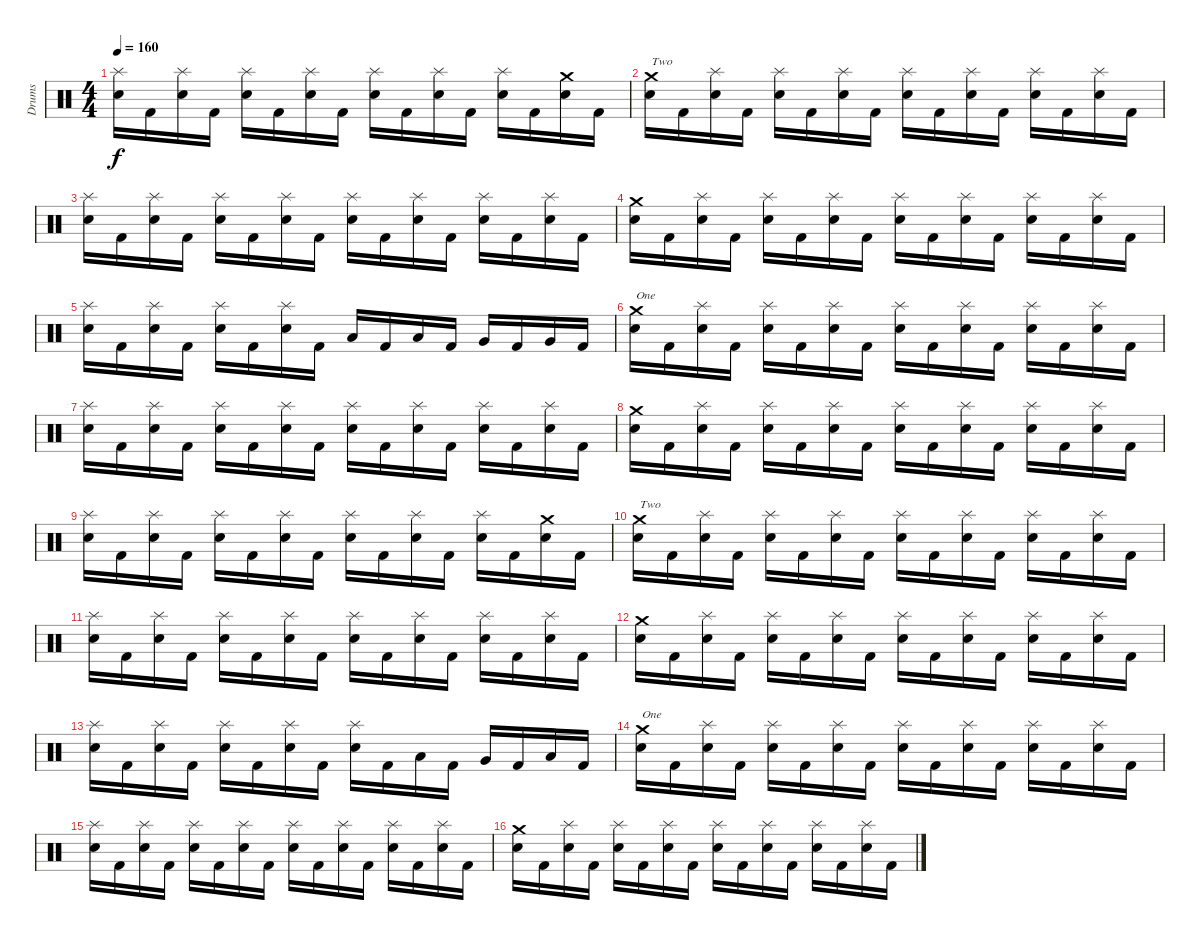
\track ("Drums" "Drums") {instrument percussion}
\staff {score}
\articulation defaults
\ts (4 4)
\tempo 160
\clef neutral
\ks c
("Splash (hit)" "Snare (hit) 2").16{dy f} "Kick (hit) 2".16 ("Splash (hit)" "Snare (hit) 2").16 "Kick (hit) 2".16 ("Splash (hit)" "Snare (hit) 2").16 "Kick (hit) 2".16 ("Splash (hit)" "Snare (hit) 2").16 "Kick (hit) 2".16 ("Splash (hit)" "Snare (hit) 2").16 "Kick (hit) 2".16 ("Splash (hit)" "Snare (hit) 2").16 "Kick (hit) 2".16 ("Splash (hit)" "Snare (hit) 2").16 "Kick (hit) 2".16 ("Crash medium (hit)" "Snare (hit) 2").16 "Kick (hit) 2".16 |
("Crash medium (hit)" "Snare (hit) 2").16{txt "Two"} "Kick (hit) 2".16 ("Splash (hit)" "Snare (hit) 2").16 "Kick (hit) 2".16 ("Splash (hit)" "Snare (hit) 2").16 "Kick (hit) 2".16 ("Splash (hit)" "Snare (hit) 2").16 "Kick (hit) 2".16 ("Splash (hit)" "Snare (hit) 2").16 "Kick (hit) 2".16 ("Splash (hit)" "Snare (hit) 2").16 "Kick (hit) 2".16 ("Splash (hit)" "Snare (hit) 2").16 "Kick (hit) 2".16 ("Splash (hit)" "Snare (hit) 2").16 "Kick (hit) 2".16 |
("Splash (hit)" "Snare (hit) 2").16 "Kick (hit) 2".16 ("Splash (hit)" "Snare (hit) 2").16 "Kick (hit) 2".16 ("Splash (hit)" "Snare (hit) 2").16 "Kick (hit) 2".16 ("Splash (hit)" "Snare (hit) 2").16 "Kick (hit) 2".16 ("Splash (hit)" "Snare (hit) 2").16 "Kick (hit) 2".16 ("Splash (hit)" "Snare (hit) 2").16 "Kick (hit) 2".16 ("Splash (hit)" "Snare (hit) 2").16 "Kick (hit) 2".16 ("Splash (hit)" "Snare (hit) 2").16 "Kick (hit) 2".16 |
("Crash medium (hit)" "Snare (hit) 2").16 "Kick (hit) 2".16 ("Splash (hit)" "Snare (hit) 2").16 "Kick (hit) 2".16 ("Splash (hit)" "Snare (hit) 2").16 "Kick (hit) 2".16 ("Splash (hit)" "Snare (hit) 2").16 "Kick (hit) 2".16 ("Splash (hit)" "Snare (hit) 2").16 "Kick (hit) 2".16 ("Splash (hit)" "Snare (hit) 2").16 "Kick (hit) 2".16 ("Splash (hit)" "Snare (hit) 2").16 "Kick (hit) 2".16 ("Splash (hit)" "Snare (hit) 2").16 "Kick (hit) 2".16 |
("Splash (hit)" "Snare (hit) 2").16 "Kick (hit) 2".16 ("Splash (hit)" "Snare (hit) 2").16 "Kick (hit) 2".16 ("Splash (hit)" "Snare (hit) 2").16 "Kick (hit) 2".16 ("Splash (hit)" "Snare (hit) 2").16 "Kick (hit) 2".16 "Low Tom (hit)".16 "Kick (hit) 2".16 "Low Tom (hit)".16 "Kick (hit) 2".16 "Very Low Tom (hit)".16 "Kick (hit) 2".16 "Very Low Tom (hit)".16 "Kick (hit) 2".16 |
("Crash medium (hit)" "Snare (hit) 2").16{txt "One"} "Kick (hit) 2".16 ("Splash (hit)" "Snare (hit) 2").16 "Kick (hit) 2".16 ("Splash (hit)" "Snare (hit) 2").16 "Kick (hit) 2".16 ("Splash (hit)" "Snare (hit) 2").16 "Kick (hit) 2".16 ("Splash (hit)" "Snare (hit) 2").16 "Kick (hit) 2".16 ("Splash (hit)" "Snare (hit) 2").16 "Kick (hit) 2".16 ("Splash (hit)" "Snare (hit) 2").16 "Kick (hit) 2".16 ("Splash (hit)" "Snare (hit) 2").16 "Kick (hit) 2".16 |
("Splash (hit)" "Snare (hit) 2").16 "Kick (hit) 2".16 ("Splash (hit)" "Snare (hit) 2").16 "Kick (hit) 2".16 ("Splash (hit)" "Snare (hit) 2").16 "Kick (hit) 2".16 ("Splash (hit)" "Snare (hit) 2").16 "Kick (hit) 2".16 ("Splash (hit)" "Snare (hit) 2").16 "Kick (hit) 2".16 ("Splash (hit)" "Snare (hit) 2").16 "Kick (hit) 2".16 ("Splash (hit)" "Snare (hit) 2").16 "Kick (hit) 2".16 ("Splash (hit)" "Snare (hit) 2").16 "Kick (hit) 2".16 |
("Crash medium (hit)" "Snare (hit) 2").16 "Kick (hit) 2".16 ("Splash (hit)" "Snare (hit) 2").16 "Kick (hit) 2".16 ("Splash (hit)" "Snare (hit) 2").16 "Kick (hit) 2".16 ("Splash (hit)" "Snare (hit) 2").16 "Kick (hit) 2".16 ("Splash (hit)" "Snare (hit) 2").16 "Kick (hit) 2".16 ("Splash (hit)" "Snare (hit) 2").16 "Kick (hit) 2".16 ("Splash (hit)" "Snare (hit) 2").16 "Kick (hit) 2".16 ("Splash (hit)" "Snare (hit) 2").16 "Kick (hit) 2".16 |
("Splash (hit)" "Snare (hit) 2").16 "Kick (hit) 2".16 ("Splash (hit)" "Snare (hit) 2").16 "Kick (hit) 2".16 ("Splash (hit)" "Snare (hit) 2").16 "Kick (hit) 2".16 ("Splash (hit)" "Snare (hit) 2").16 "Kick (hit) 2".16 ("Splash (hit)" "Snare (hit) 2").16 "Kick (hit) 2".16 ("Splash (hit)" "Snare (hit) 2").16 "Kick (hit) 2".16 ("Splash (hit)" "Snare (hit) 2").16 "Kick (hit) 2".16 ("Crash medium (hit)" "Snare (hit) 2").16 "Kick (hit) 2".16 |
("Crash medium (hit)" "Snare (hit) 2").16{txt "Two"} "Kick (hit) 2".16 ("Splash (hit)" "Snare (hit) 2").16 "Kick (hit) 2".16 ("Splash (hit)" "Snare (hit) 2").16 "Kick (hit) 2".16 ("Splash (hit)" "Snare (hit) 2").16 "Kick (hit) 2".16 ("Splash (hit)" "Snare (hit) 2").16 "Kick (hit) 2".16 ("Splash (hit)" "Snare (hit) 2").16 "Kick (hit) 2".16 ("Splash (hit)" "Snare (hit) 2").16 "Kick (hit) 2".16 ("Splash (hit)" "Snare (hit) 2").16 "Kick (hit) 2".16 |
("Splash (hit)" "Snare (hit) 2").16 "Kick (hit) 2".16 ("Splash (hit)" "Snare (hit) 2").16 "Kick (hit) 2".16 ("Splash (hit)" "Snare (hit) 2").16 "Kick (hit) 2".16 ("Splash (hit)" "Snare (hit) 2").16 "Kick (hit) 2".16 ("Splash (hit)" "Snare (hit) 2").16 "Kick (hit) 2".16 ("Splash (hit)" "Snare (hit) 2").16 "Kick (hit) 2".16 ("Splash (hit)" "Snare (hit) 2").16 "Kick (hit) 2".16 ("Splash (hit)" "Snare (hit) 2").16 "Kick (hit) 2".16 |
("Crash medium (hit)" "Snare (hit) 2").16 "Kick (hit) 2".16 ("Splash (hit)" "Snare (hit) 2").16 "Kick (hit) 2".16 ("Splash (hit)" "Snare (hit) 2").16 "Kick (hit) 2".16 ("Splash (hit)" "Snare (hit) 2").16 "Kick (hit) 2".16 ("Splash (hit)" "Snare (hit) 2").16 "Kick (hit) 2".16 ("Splash (hit)" "Snare (hit) 2").16 "Kick (hit) 2".16 ("Splash (hit)" "Snare (hit) 2").16 "Kick (hit) 2".16 ("Splash (hit)" "Snare (hit) 2").16 "Kick (hit) 2".16 |
("Splash (hit)" "Snare (hit) 2").16 "Kick (hit) 2".16 ("Splash (hit)" "Snare (hit) 2").16 "Kick (hit) 2".16 ("Splash (hit)" "Snare (hit) 2").16 "Kick (hit) 2".16 ("Splash (hit)" "Snare (hit) 2").16 "Kick (hit) 2".16 ("Splash (hit)" "Snare (hit) 2").16 "Kick (hit) 2".16 "Low Tom (hit)".16 "Kick (hit) 2".16 "Very Low Tom (hit)".16 "Kick (hit) 2".16 "Low Floor Tom (hit)".16 "Kick (hit) 2".16 |
("Crash medium (hit)" "Snare (hit) 2").16{txt "One"} "Kick (hit) 2".16 ("Splash (hit)" "Snare (hit) 2").16 "Kick (hit) 2".16 ("Splash (hit)" "Snare (hit) 2").16 "Kick (hit) 2".16 ("Splash (hit)" "Snare (hit) 2").16 "Kick (hit) 2".16 ("Splash (hit)" "Snare (hit) 2").16 "Kick (hit) 2".16 ("Splash (hit)" "Snare (hit) 2").16 "Kick (hit) 2".16 ("Splash (hit)" "Snare (hit) 2").16 "Kick (hit) 2".16 ("Splash (hit)" "Snare (hit) 2").16 "Kick (hit) 2".16 |
("Splash (hit)" "Snare (hit) 2").16 "Kick (hit) 2".16 ("Splash (hit)" "Snare (hit) 2").16 "Kick (hit) 2".16 ("Splash (hit)" "Snare (hit) 2").16 "Kick (hit) 2".16 ("Splash (hit)" "Snare (hit) 2").16 "Kick (hit) 2".16 ("Splash (hit)" "Snare (hit) 2").16 "Kick (hit) 2".16 ("Splash (hit)" "Snare (hit) 2").16 "Kick (hit) 2".16 ("Splash (hit)" "Snare (hit) 2").16 "Kick (hit) 2".16 ("Splash (hit)" "Snare (hit) 2").16 "Kick (hit) 2".16 |
("Crash medium (hit)" "Snare (hit) 2").16 "Kick (hit) 2".16 ("Splash (hit)" "Snare (hit) 2").16 "Kick (hit) 2".16 ("Splash (hit)" "Snare (hit) 2").16 "Kick (hit) 2".16 ("Splash (hit)" "Snare (hit) 2").16 "Kick (hit) 2".16 ("Splash (hit)" "Snare (hit) 2").16 "Kick (hit) 2".16 ("Splash (hit)" "Snare (hit) 2").16 "Kick (hit) 2".16 ("Splash (hit)" "Snare (hit) 2").16 "Kick (hit) 2".16 ("Splash (hit)" "Snare (hit) 2").16 "Kick (hit) 2".16
